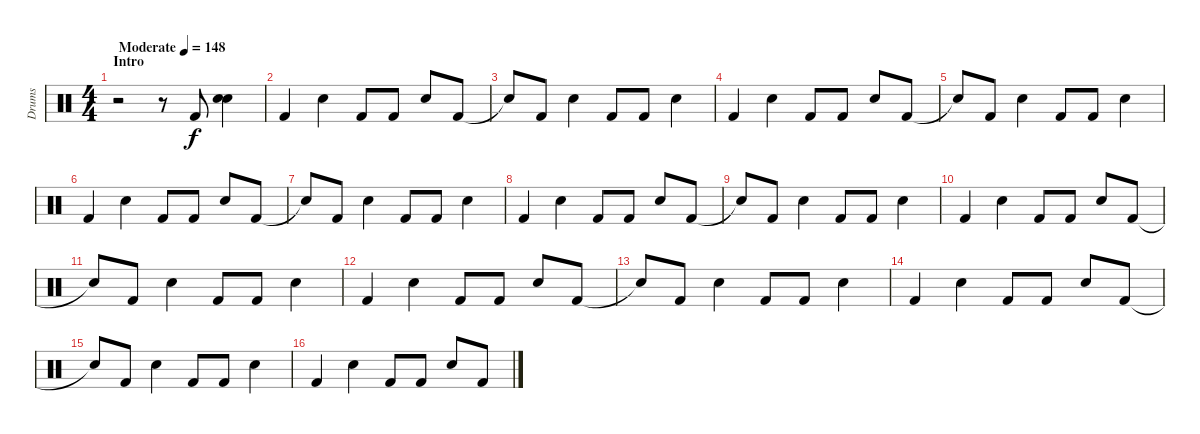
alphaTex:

\track ("Drums" "Drums") {instrument percussion}
\staff {score}
\articulation defaults
\ts (4 4)
\section ("" "Intro")
\tempo (148 "Moderate")
\clef neutral
\ks c
r.2{dy f} r.8 "Kick (hit) 2".8 ("Electric Snare (hit)" "Electric Snare (hit)").4 |
"Kick (hit) 2".4 "Electric Snare (hit)".4 "Kick (hit) 2".8 "Kick (hit) 2".8 "Electric Snare (hit)".8 "Kick (hit) 2".8 |
"Snare (hit)"{t}.8 "Kick (hit) 2".8 "Electric Snare (hit)".4 "Kick (hit) 2".8 "Kick (hit) 2".8 "Electric Snare (hit)".4 |
"Kick (hit) 2".4 "Electric Snare (hit)".4 "Kick (hit) 2".8 "Kick (hit) 2".8 "Electric Snare (hit)".8 "Kick (hit) 2".8 |
"Snare (hit)"{t}.8 "Kick (hit) 2".8 "Electric Snare (hit)".4 "Kick (hit) 2".8 "Kick (hit) 2".8 "Electric Snare (hit)".4 |
"Kick (hit) 2".4 "Electric Snare (hit)".4 "Kick (hit) 2".8 "Kick (hit) 2".8 "Electric Snare (hit)".8 "Kick (hit) 2".8 |
"Snare (hit)"{t}.8 "Kick (hit) 2".8 "Electric Snare (hit)".4 "Kick (hit) 2".8 "Kick (hit) 2".8 "Electric Snare (hit)".4 |
"Kick (hit) 2".4 "Electric Snare (hit)".4 "Kick (hit) 2".8 "Kick (hit) 2".8 "Electric Snare (hit)".8 "Kick (hit) 2".8 |
"Snare (hit)"{t}.8 "Kick (hit) 2".8 "Electric Snare (hit)".4 "Kick (hit) 2".8 "Kick (hit) 2".8 "Electric Snare (hit)".4 |
"Kick (hit) 2".4 "Electric Snare (hit)".4 "Kick (hit) 2".8 "Kick (hit) 2".8 "Electric Snare (hit)".8 "Kick (hit) 2".8 |
"Snare (hit)"{t}.8 "Kick (hit) 2".8 "Electric Snare (hit)".4 "Kick (hit) 2".8 "Kick (hit) 2".8 "Electric Snare (hit)".4 |
"Kick (hit) 2".4 "Electric Snare (hit)".4 "Kick (hit) 2".8 "Kick (hit) 2".8 "Electric Snare (hit)".8 "Kick (hit) 2".8 |
"Snare (hit)"{t}.8 "Kick (hit) 2".8 "Electric Snare (hit)".4 "Kick (hit) 2".8 "Kick (hit) 2".8 "Electric Snare (hit)".4 |
"Kick (hit) 2".4 "Electric Snare (hit)".4 "Kick (hit) 2".8 "Kick (hit) 2".8 "Electric Snare (hit)".8 "Kick (hit) 2".8 |
"Snare (hit)"{t}.8 "Kick (hit) 2".8 "Electric Snare (hit)".4 "Kick (hit) 2".8 "Kick (hit) 2".8 "Electric Snare (hit)".4 |
"Kick (hit) 2".4 "Electric Snare (hit)".4 "Kick (hit) 2".8 "Kick (hit) 2".8 "Electric Snare (hit)".8 "Kick (hit) 2".8
